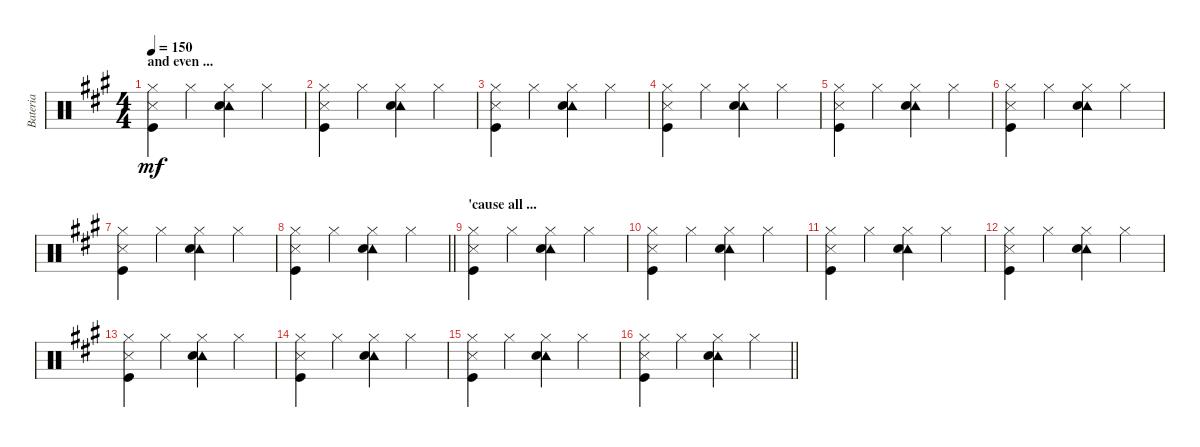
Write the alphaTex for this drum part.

\track ("Bateria" "Bateria") {instrument percussion}
\staff {score}
\articulation defaults
\ts (4 4)
\section ("" "and even ...")
\tempo 150
\clef neutral
\ks a
("Hi-Hat (closed)" "Metronome (hit)" "Kick (hit)").4{dy mf} "Hi-Hat (closed)".4 ("Tambourine (hit)" "Hi-Hat (closed)" "Electric Snare (hit)").4 "Hi-Hat (closed)".4 |
("Hi-Hat (closed)" "Metronome (hit)" "Kick (hit)").4 "Hi-Hat (closed)".4 ("Tambourine (hit)" "Hi-Hat (closed)" "Electric Snare (hit)").4 "Hi-Hat (closed)".4 |
("Hi-Hat (closed)" "Metronome (hit)" "Kick (hit)").4 "Hi-Hat (closed)".4 ("Tambourine (hit)" "Hi-Hat (closed)" "Electric Snare (hit)").4 "Hi-Hat (closed)".4 |
("Hi-Hat (closed)" "Metronome (hit)" "Kick (hit)").4 "Hi-Hat (closed)".4 ("Tambourine (hit)" "Hi-Hat (closed)" "Electric Snare (hit)").4 "Hi-Hat (closed)".4 |
("Hi-Hat (closed)" "Metronome (hit)" "Kick (hit)").4 "Hi-Hat (closed)".4 ("Tambourine (hit)" "Hi-Hat (closed)" "Electric Snare (hit)").4 "Hi-Hat (closed)".4 |
("Hi-Hat (closed)" "Metronome (hit)" "Kick (hit)").4 "Hi-Hat (closed)".4 ("Tambourine (hit)" "Hi-Hat (closed)" "Electric Snare (hit)").4 "Hi-Hat (closed)".4 |
("Hi-Hat (closed)" "Metronome (hit)" "Kick (hit)").4 "Hi-Hat (closed)".4 ("Tambourine (hit)" "Hi-Hat (closed)" "Electric Snare (hit)").4 "Hi-Hat (closed)".4 |
\barLineRight lightlight
("Hi-Hat (closed)" "Metronome (hit)" "Kick (hit)").4 "Hi-Hat (closed)".4 ("Tambourine (hit)" "Hi-Hat (closed)" "Electric Snare (hit)").4 "Hi-Hat (closed)".4 |
\section ("" "'cause all ...")
("Hi-Hat (closed)" "Metronome (hit)" "Kick (hit)").4 "Hi-Hat (closed)".4 ("Tambourine (hit)" "Hi-Hat (closed)" "Electric Snare (hit)").4 "Hi-Hat (closed)".4 |
("Hi-Hat (closed)" "Metronome (hit)" "Kick (hit)").4 "Hi-Hat (closed)".4 ("Tambourine (hit)" "Hi-Hat (closed)" "Electric Snare (hit)").4 "Hi-Hat (closed)".4 |
("Hi-Hat (closed)" "Metronome (hit)" "Kick (hit)").4 "Hi-Hat (closed)".4 ("Tambourine (hit)" "Hi-Hat (closed)" "Electric Snare (hit)").4 "Hi-Hat (closed)".4 |
("Hi-Hat (closed)" "Metronome (hit)" "Kick (hit)").4 "Hi-Hat (closed)".4 ("Tambourine (hit)" "Hi-Hat (closed)" "Electric Snare (hit)").4 "Hi-Hat (closed)".4 |
("Hi-Hat (closed)" "Metronome (hit)" "Kick (hit)").4 "Hi-Hat (closed)".4 ("Tambourine (hit)" "Hi-Hat (closed)" "Electric Snare (hit)").4 "Hi-Hat (closed)".4 |
("Hi-Hat (closed)" "Metronome (hit)" "Kick (hit)").4 "Hi-Hat (closed)".4 ("Tambourine (hit)" "Hi-Hat (closed)" "Electric Snare (hit)").4 "Hi-Hat (closed)".4 |
("Hi-Hat (closed)" "Metronome (hit)" "Kick (hit)").4 "Hi-Hat (closed)".4 ("Tambourine (hit)" "Hi-Hat (closed)" "Electric Snare (hit)").4 "Hi-Hat (closed)".4 |
\barLineRight lightlight
("Hi-Hat (closed)" "Metronome (hit)" "Kick (hit)").4 "Hi-Hat (closed)".4 ("Tambourine (hit)" "Hi-Hat (closed)" "Electric Snare (hit)").4 "Hi-Hat (closed)".4
